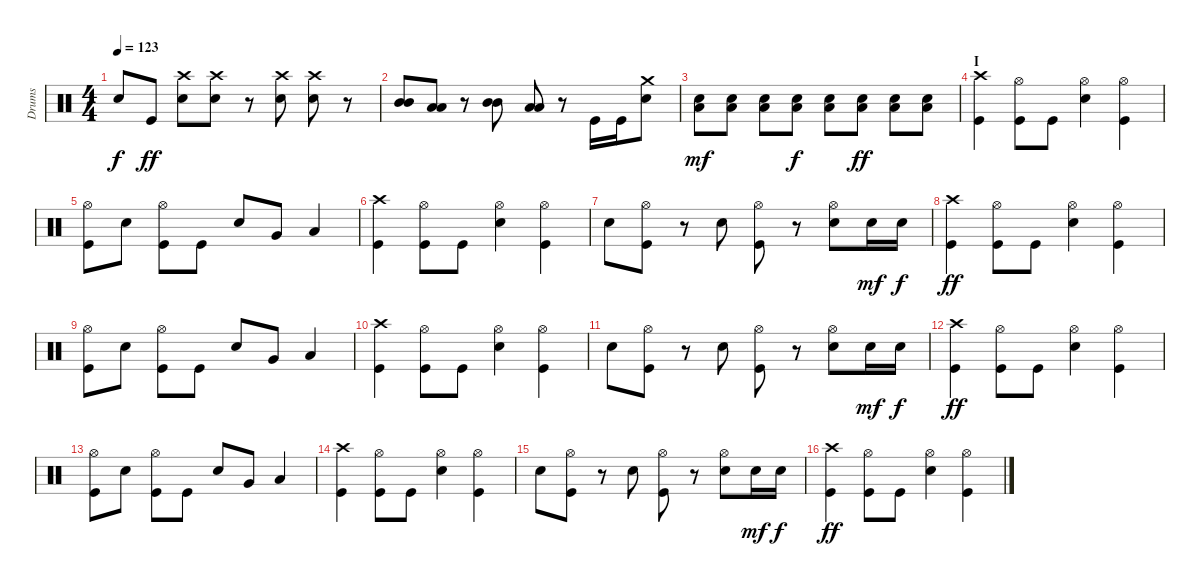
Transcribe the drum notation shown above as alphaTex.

\track ("Drums" "Drums") {instrument percussion}
\staff {score}
\articulation defaults
\ts (4 4)
\tempo 123
\clef neutral
\ks c "Snare (hit)"{t}.8{dy f} "Kick (hit)".8{dy ff}
("Crash high (hit)" "Electric Snare (hit)").8 ("Crash high (hit)" "Electric Snare (hit)").8 r.8 ("Crash high (hit)" "Electric Snare (hit)").8 ("Crash high (hit)" "Electric Snare (hit)").8 r.8 |
("Mid Tom (hit)" "Mid Tom (hit)").8 ("Low Tom (hit)" "Low Tom (hit)").8 r.8 ("Mid Tom (hit)" "Mid Tom (hit)").8 ("Low Tom (hit)" "Low Tom (hit)").8 r.8 "Kick (hit)".16 "Kick (hit)".16 ("Crash medium (hit)" "Electric Snare (hit)").8 |
("Low Floor Tom (hit)" "Electric Snare (hit)").8{dy mf} ("Low Floor Tom (hit)" "Electric Snare (hit)").8 ("Low Floor Tom (hit)" "Electric Snare (hit)").8 ("Low Floor Tom (hit)" "Electric Snare (hit)").8{dy f} ("Low Floor Tom (hit)" "Electric Snare (hit)").8 ("Low Floor Tom (hit)" "Electric Snare (hit)").8{dy ff} ("Low Floor Tom (hit)" "Electric Snare (hit)").8 ("Low Floor Tom (hit)" "Electric Snare (hit)").8 |
\section ("" "Ⅰ")
("Crash high (hit)" "Kick (hit)").4 ("Hi-Hat (open)" "Kick (hit)").8 "Kick (hit)".8 ("Hi-Hat (open)" "Electric Snare (hit)").4 ("Hi-Hat (open)" "Kick (hit)").4 |
("Hi-Hat (open)" "Kick (hit)").8 "Electric Snare (hit)".8 ("Hi-Hat (open)" "Kick (hit)").8 "Kick (hit)".8 "Electric Snare (hit)".8 "Very Low Tom (hit)".8 "Low Floor Tom (hit)".4 |
("Crash high (hit)" "Kick (hit)").4 ("Hi-Hat (open)" "Kick (hit)").8 "Kick (hit)".8 ("Hi-Hat (open)" "Electric Snare (hit)").4 ("Hi-Hat (open)" "Kick (hit)").4 |
"Electric Snare (hit)".8 ("Hi-Hat (open)" "Kick (hit)").8 r.8 "Electric Snare (hit)".8 ("Hi-Hat (open)" "Kick (hit)").8 r.8 ("Hi-Hat (open)" "Electric Snare (hit)").8 "Electric Snare (hit)".16{dy mf} "Electric Snare (hit)".16{dy f} |
("Crash high (hit)" "Kick (hit)").4{dy ff} ("Hi-Hat (open)" "Kick (hit)").8 "Kick (hit)".8 ("Hi-Hat (open)" "Electric Snare (hit)").4 ("Hi-Hat (open)" "Kick (hit)").4 |
("Hi-Hat (open)" "Kick (hit)").8 "Electric Snare (hit)".8 ("Hi-Hat (open)" "Kick (hit)").8 "Kick (hit)".8 "Electric Snare (hit)".8 "Very Low Tom (hit)".8 "Low Floor Tom (hit)".4 |
("Crash high (hit)" "Kick (hit)").4 ("Hi-Hat (open)" "Kick (hit)").8 "Kick (hit)".8 ("Hi-Hat (open)" "Electric Snare (hit)").4 ("Hi-Hat (open)" "Kick (hit)").4 |
"Electric Snare (hit)".8 ("Hi-Hat (open)" "Kick (hit)").8 r.8 "Electric Snare (hit)".8 ("Hi-Hat (open)" "Kick (hit)").8 r.8 ("Hi-Hat (open)" "Electric Snare (hit)").8 "Electric Snare (hit)".16{dy mf} "Electric Snare (hit)".16{dy f} |
("Crash high (hit)" "Kick (hit)").4{dy ff} ("Hi-Hat (open)" "Kick (hit)").8 "Kick (hit)".8 ("Hi-Hat (open)" "Electric Snare (hit)").4 ("Hi-Hat (open)" "Kick (hit)").4 |
("Hi-Hat (open)" "Kick (hit)").8 "Electric Snare (hit)".8 ("Hi-Hat (open)" "Kick (hit)").8 "Kick (hit)".8 "Electric Snare (hit)".8 "Very Low Tom (hit)".8 "Low Floor Tom (hit)".4 |
("Crash high (hit)" "Kick (hit)").4 ("Hi-Hat (open)" "Kick (hit)").8 "Kick (hit)".8 ("Hi-Hat (open)" "Electric Snare (hit)").4 ("Hi-Hat (open)" "Kick (hit)").4 |
"Electric Snare (hit)".8 ("Hi-Hat (open)" "Kick (hit)").8 r.8 "Electric Snare (hit)".8 ("Hi-Hat (open)" "Kick (hit)").8 r.8 ("Hi-Hat (open)" "Electric Snare (hit)").8 "Electric Snare (hit)".16{dy mf} "Electric Snare (hit)".16{dy f} |
("Crash high (hit)" "Kick (hit)").4{dy ff} ("Hi-Hat (open)" "Kick (hit)").8 "Kick (hit)".8 ("Hi-Hat (open)" "Electric Snare (hit)").4 ("Hi-Hat (open)" "Kick (hit)").4
